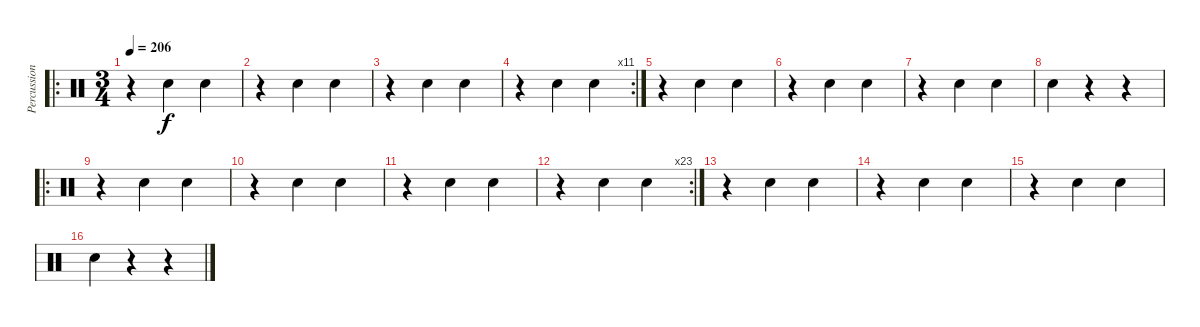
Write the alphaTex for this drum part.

\track ("Percussion" "Percussion") {instrument percussion}
\staff {score}
\articulation defaults
\ro
\ts (3 4)
\tempo 206
\clef neutral
\ks c
r.4{dy f} "Electric Snare (hit)".4 "Electric Snare (hit)".4 |
r.4 "Electric Snare (hit)".4 "Electric Snare (hit)".4 |
r.4 "Electric Snare (hit)".4 "Electric Snare (hit)".4 |
\rc 11
r.4 "Electric Snare (hit)".4 "Electric Snare (hit)".4 |
r.4 "Electric Snare (hit)".4 "Electric Snare (hit)".4 |
r.4 "Electric Snare (hit)".4 "Electric Snare (hit)".4 |
r.4 "Electric Snare (hit)".4 "Electric Snare (hit)".4 |
"Electric Snare (hit)".4 r.4 r.4 |
\ro
r.4 "Electric Snare (hit)".4 "Electric Snare (hit)".4 |
r.4 "Electric Snare (hit)".4 "Electric Snare (hit)".4 |
r.4 "Electric Snare (hit)".4 "Electric Snare (hit)".4 |
\rc 23
r.4 "Electric Snare (hit)".4 "Electric Snare (hit)".4 |
r.4 "Electric Snare (hit)".4 "Electric Snare (hit)".4 |
r.4 "Electric Snare (hit)".4 "Electric Snare (hit)".4 |
r.4 "Electric Snare (hit)".4 "Electric Snare (hit)".4 |
"Electric Snare (hit)".4 r.4 r.4
